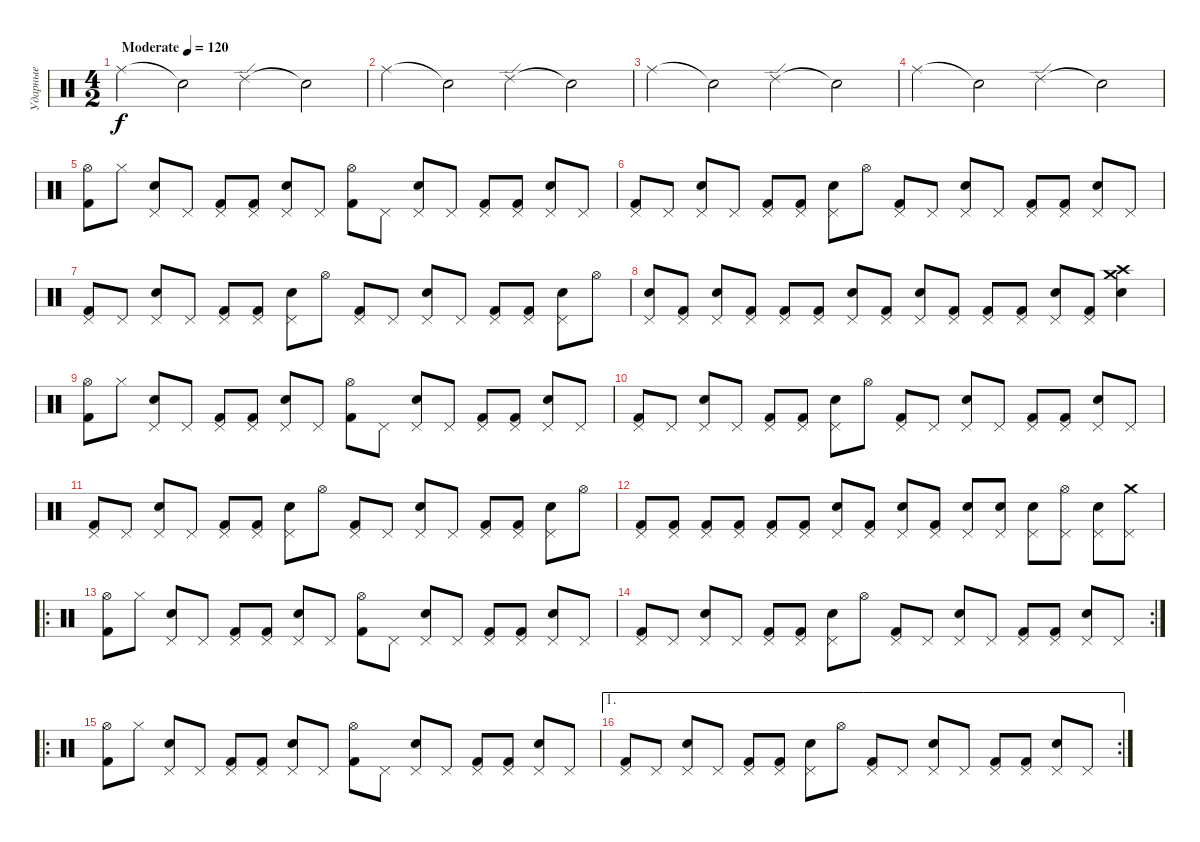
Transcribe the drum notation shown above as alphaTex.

\track ("Ударные" "Ударные") {instrument percussion}
\staff {score}
\articulation defaults
\ts (4 2)
\tempo (120 "Moderate")
\clef neutral
\ks c "Ride (middle)".2{dy f} "Snare (hit)"{t}.2 "Ride (edge) 2".2 "Snare (hit)"{t}.2
|
"Ride (middle)".2 "Snare (hit)"{t}.2 "Ride (edge) 2".2 "Snare (hit)"{t}.2 |
"Ride (middle)".2 "Snare (hit)"{t}.2 "Ride (edge) 2".2 "Snare (hit)"{t}.2 |
"Ride (middle)".2 "Snare (hit)"{t}.2 "Ride (edge) 2".2 "Snare (hit)"{t}.2 |
("Kick (hit) 2" "Hi-Hat (open)").8 "Hi-Hat (closed)".8 ("Snare (hit) 2" "Pedal Hi-Hat (hit)").8 "Pedal Hi-Hat (hit)".8 ("Kick (hit) 2" "Pedal Hi-Hat (hit)").8 ("Kick (hit) 2" "Pedal Hi-Hat (hit)").8 ("Snare (hit) 2" "Pedal Hi-Hat (hit)").8 "Pedal Hi-Hat (hit)".8 ("Kick (hit) 2" "Hi-Hat (open)").8 "Pedal Hi-Hat (hit)".8 ("Snare (hit) 2" "Pedal Hi-Hat (hit)").8 "Pedal Hi-Hat (hit)".8 ("Kick (hit) 2" "Pedal Hi-Hat (hit)").8 ("Kick (hit) 2" "Pedal Hi-Hat (hit)").8 ("Snare (hit) 2" "Pedal Hi-Hat (hit)").8 "Pedal Hi-Hat (hit)".8 |
("Kick (hit) 2" "Pedal Hi-Hat (hit)").8 "Pedal Hi-Hat (hit)".8 ("Snare (hit) 2" "Pedal Hi-Hat (hit)").8 "Pedal Hi-Hat (hit)".8 ("Kick (hit) 2" "Pedal Hi-Hat (hit)").8 ("Kick (hit) 2" "Pedal Hi-Hat (hit)").8 ("Snare (hit) 2" "Pedal Hi-Hat (hit)").8 "Hi-Hat (open)".8 ("Kick (hit) 2" "Pedal Hi-Hat (hit)").8 "Pedal Hi-Hat (hit)".8 ("Snare (hit) 2" "Pedal Hi-Hat (hit)").8 "Pedal Hi-Hat (hit)".8 ("Kick (hit) 2" "Pedal Hi-Hat (hit)").8 ("Kick (hit) 2" "Pedal Hi-Hat (hit)").8 ("Snare (hit) 2" "Pedal Hi-Hat (hit)").8 "Pedal Hi-Hat (hit)".8 |
("Kick (hit) 2" "Pedal Hi-Hat (hit)").8 "Pedal Hi-Hat (hit)".8 ("Snare (hit) 2" "Pedal Hi-Hat (hit)").8 "Pedal Hi-Hat (hit)".8 ("Kick (hit) 2" "Pedal Hi-Hat (hit)").8 ("Kick (hit) 2" "Pedal Hi-Hat (hit)").8 ("Snare (hit) 2" "Pedal Hi-Hat (hit)").8 "Hi-Hat (open)".8 ("Kick (hit) 2" "Pedal Hi-Hat (hit)").8 "Pedal Hi-Hat (hit)".8 ("Snare (hit) 2" "Pedal Hi-Hat (hit)").8 "Pedal Hi-Hat (hit)".8 ("Kick (hit) 2" "Pedal Hi-Hat (hit)").8 ("Kick (hit) 2" "Pedal Hi-Hat (hit)").8 ("Snare (hit) 2" "Pedal Hi-Hat (hit)").8 "Hi-Hat (open)".8 |
("Snare (hit) 2" "Pedal Hi-Hat (hit)").8 ("Kick (hit) 2" "Pedal Hi-Hat (hit)").8 ("Snare (hit) 2" "Pedal Hi-Hat (hit)").8 ("Kick (hit) 2" "Pedal Hi-Hat (hit)").8 ("Kick (hit) 2" "Pedal Hi-Hat (hit)").8 ("Kick (hit) 2" "Pedal Hi-Hat (hit)").8 ("Snare (hit) 2" "Pedal Hi-Hat (hit)").8 ("Kick (hit) 2" "Pedal Hi-Hat (hit)").8 ("Snare (hit) 2" "Pedal Hi-Hat (hit)").8 ("Kick (hit) 2" "Pedal Hi-Hat (hit)").8 ("Kick (hit) 2" "Pedal Hi-Hat (hit)").8 ("Kick (hit) 2" "Pedal Hi-Hat (hit)").8 ("Snare (hit) 2" "Pedal Hi-Hat (hit)").8 ("Kick (hit) 2" "Pedal Hi-Hat (hit)").8 ("Crash high (hit)" "Crash medium (hit)" "Snare (hit) 2").4 |
("Kick (hit) 2" "Hi-Hat (open)").8 "Hi-Hat (closed)".8 ("Snare (hit) 2" "Pedal Hi-Hat (hit)").8 "Pedal Hi-Hat (hit)".8 ("Kick (hit) 2" "Pedal Hi-Hat (hit)").8 ("Kick (hit) 2" "Pedal Hi-Hat (hit)").8 ("Snare (hit) 2" "Pedal Hi-Hat (hit)").8 "Pedal Hi-Hat (hit)".8 ("Kick (hit) 2" "Hi-Hat (open)").8 "Pedal Hi-Hat (hit)".8 ("Snare (hit) 2" "Pedal Hi-Hat (hit)").8 "Pedal Hi-Hat (hit)".8 ("Kick (hit) 2" "Pedal Hi-Hat (hit)").8 ("Kick (hit) 2" "Pedal Hi-Hat (hit)").8 ("Snare (hit) 2" "Pedal Hi-Hat (hit)").8 "Pedal Hi-Hat (hit)".8 |
("Kick (hit) 2" "Pedal Hi-Hat (hit)").8 "Pedal Hi-Hat (hit)".8 ("Snare (hit) 2" "Pedal Hi-Hat (hit)").8 "Pedal Hi-Hat (hit)".8 ("Kick (hit) 2" "Pedal Hi-Hat (hit)").8 ("Kick (hit) 2" "Pedal Hi-Hat (hit)").8 ("Snare (hit) 2" "Pedal Hi-Hat (hit)").8 "Hi-Hat (open)".8 ("Kick (hit) 2" "Pedal Hi-Hat (hit)").8 "Pedal Hi-Hat (hit)".8 ("Snare (hit) 2" "Pedal Hi-Hat (hit)").8 "Pedal Hi-Hat (hit)".8 ("Kick (hit) 2" "Pedal Hi-Hat (hit)").8 ("Kick (hit) 2" "Pedal Hi-Hat (hit)").8 ("Snare (hit) 2" "Pedal Hi-Hat (hit)").8 "Pedal Hi-Hat (hit)".8 |
("Kick (hit) 2" "Pedal Hi-Hat (hit)").8 "Pedal Hi-Hat (hit)".8 ("Snare (hit) 2" "Pedal Hi-Hat (hit)").8 "Pedal Hi-Hat (hit)".8 ("Kick (hit) 2" "Pedal Hi-Hat (hit)").8 ("Kick (hit) 2" "Pedal Hi-Hat (hit)").8 ("Snare (hit) 2" "Pedal Hi-Hat (hit)").8 "Hi-Hat (open)".8 ("Kick (hit) 2" "Pedal Hi-Hat (hit)").8 "Pedal Hi-Hat (hit)".8 ("Snare (hit) 2" "Pedal Hi-Hat (hit)").8 "Pedal Hi-Hat (hit)".8 ("Kick (hit) 2" "Pedal Hi-Hat (hit)").8 ("Kick (hit) 2" "Pedal Hi-Hat (hit)").8 ("Snare (hit) 2" "Pedal Hi-Hat (hit)").8 "Hi-Hat (open)".8 |
("Kick (hit) 2" "Pedal Hi-Hat (hit)").8 ("Kick (hit) 2" "Pedal Hi-Hat (hit)").8 ("Kick (hit) 2" "Pedal Hi-Hat (hit)").8 ("Kick (hit) 2" "Pedal Hi-Hat (hit)").8 ("Kick (hit) 2" "Pedal Hi-Hat (hit)").8 ("Kick (hit) 2" "Pedal Hi-Hat (hit)").8 ("Snare (hit) 2" "Pedal Hi-Hat (hit)").8 ("Kick (hit) 2" "Pedal Hi-Hat (hit)").8 ("Snare (hit) 2" "Pedal Hi-Hat (hit)").8 ("Kick (hit) 2" "Pedal Hi-Hat (hit)").8 ("Snare (hit) 2" "Pedal Hi-Hat (hit)").8 ("Snare (hit) 2" "Pedal Hi-Hat (hit)").8 ("Snare (hit) 2" "Pedal Hi-Hat (hit)").8 ("Hi-Hat (open)" "Pedal Hi-Hat (hit)").8 ("Snare (hit) 2" "Pedal Hi-Hat (hit)").8 ("Crash medium (hit)" "Pedal Hi-Hat (hit)").8 |
\ro
("Kick (hit) 2" "Hi-Hat (open)").8 "Hi-Hat (closed)".8 ("Snare (hit) 2" "Pedal Hi-Hat (hit)").8 "Pedal Hi-Hat (hit)".8 ("Kick (hit) 2" "Pedal Hi-Hat (hit)").8 ("Kick (hit) 2" "Pedal Hi-Hat (hit)").8 ("Snare (hit) 2" "Pedal Hi-Hat (hit)").8 "Pedal Hi-Hat (hit)".8 ("Kick (hit) 2" "Hi-Hat (open)").8 "Pedal Hi-Hat (hit)".8 ("Snare (hit) 2" "Pedal Hi-Hat (hit)").8 "Pedal Hi-Hat (hit)".8 ("Kick (hit) 2" "Pedal Hi-Hat (hit)").8 ("Kick (hit) 2" "Pedal Hi-Hat (hit)").8 ("Snare (hit) 2" "Pedal Hi-Hat (hit)").8 "Pedal Hi-Hat (hit)".8 |
\rc 2
("Kick (hit) 2" "Pedal Hi-Hat (hit)").8 "Pedal Hi-Hat (hit)".8 ("Snare (hit) 2" "Pedal Hi-Hat (hit)").8 "Pedal Hi-Hat (hit)".8 ("Kick (hit) 2" "Pedal Hi-Hat (hit)").8 ("Kick (hit) 2" "Pedal Hi-Hat (hit)").8 ("Snare (hit) 2" "Pedal Hi-Hat (hit)").8 "Hi-Hat (open)".8 ("Kick (hit) 2" "Pedal Hi-Hat (hit)").8 "Pedal Hi-Hat (hit)".8 ("Snare (hit) 2" "Pedal Hi-Hat (hit)").8 "Pedal Hi-Hat (hit)".8 ("Kick (hit) 2" "Pedal Hi-Hat (hit)").8 ("Kick (hit) 2" "Pedal Hi-Hat (hit)").8 ("Snare (hit) 2" "Pedal Hi-Hat (hit)").8 "Pedal Hi-Hat (hit)".8 |
\ro
("Kick (hit) 2" "Hi-Hat (open)").8 "Hi-Hat (closed)".8 ("Snare (hit) 2" "Pedal Hi-Hat (hit)").8 "Pedal Hi-Hat (hit)".8 ("Kick (hit) 2" "Pedal Hi-Hat (hit)").8 ("Kick (hit) 2" "Pedal Hi-Hat (hit)").8 ("Snare (hit) 2" "Pedal Hi-Hat (hit)").8 "Pedal Hi-Hat (hit)".8 ("Kick (hit) 2" "Hi-Hat (open)").8 "Pedal Hi-Hat (hit)".8 ("Snare (hit) 2" "Pedal Hi-Hat (hit)").8 "Pedal Hi-Hat (hit)".8 ("Kick (hit) 2" "Pedal Hi-Hat (hit)").8 ("Kick (hit) 2" "Pedal Hi-Hat (hit)").8 ("Snare (hit) 2" "Pedal Hi-Hat (hit)").8 "Pedal Hi-Hat (hit)".8 |
\ae 1
\rc 2
("Kick (hit) 2" "Pedal Hi-Hat (hit)").8 "Pedal Hi-Hat (hit)".8 ("Snare (hit) 2" "Pedal Hi-Hat (hit)").8 "Pedal Hi-Hat (hit)".8 ("Kick (hit) 2" "Pedal Hi-Hat (hit)").8 ("Kick (hit) 2" "Pedal Hi-Hat (hit)").8 ("Snare (hit) 2" "Pedal Hi-Hat (hit)").8 "Hi-Hat (open)".8 ("Kick (hit) 2" "Pedal Hi-Hat (hit)").8 "Pedal Hi-Hat (hit)".8 ("Snare (hit) 2" "Pedal Hi-Hat (hit)").8 "Pedal Hi-Hat (hit)".8 ("Kick (hit) 2" "Pedal Hi-Hat (hit)").8 ("Kick (hit) 2" "Pedal Hi-Hat (hit)").8 ("Snare (hit) 2" "Pedal Hi-Hat (hit)").8 "Pedal Hi-Hat (hit)".8
